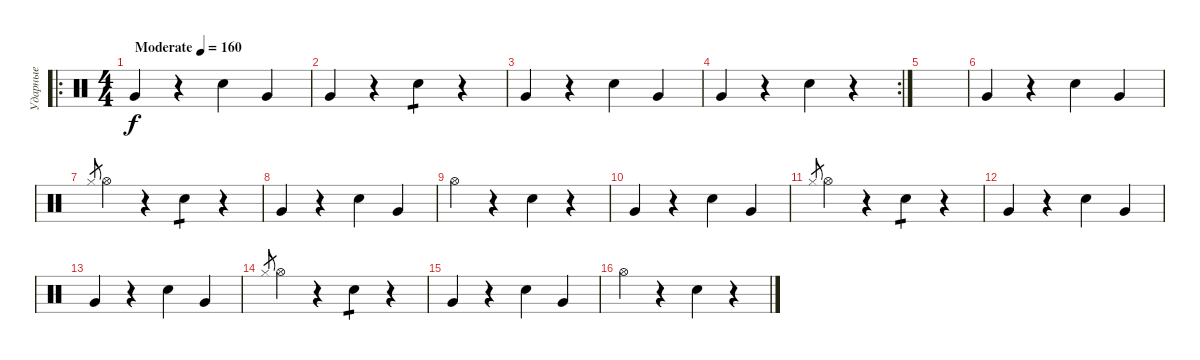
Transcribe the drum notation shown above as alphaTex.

\track ("Ударные" "Ударные") {instrument percussion}
\staff {score}
\articulation defaults
\ro
\ts (4 4)
\tempo (160 "Moderate")
\clef neutral
\ks c "Very Low Tom (hit)".4{dy f}
r.4 "Hand Clap (hit)".4 "Very Low Tom (hit)".4 |
"Very Low Tom (hit)".4 r.4 "Hand Clap (hit)".4{tp 1} r.4 |
"Very Low Tom (hit)".4 r.4 "Hand Clap (hit)".4 "Very Low Tom (hit)".4 |
\rc 2 "Very Low Tom (hit)".4
r.4 "Hand Clap (hit)".4 r.4 |
|
"Very Low Tom (hit)".4 r.4 "Hand Clap (hit)".4 "Very Low Tom (hit)".4 |
"Hi-Hat (closed)".8{gr} "Hi-Hat (open)".4 r.4 "Hand Clap (hit)".4{tp 1} r.4 |
"Very Low Tom (hit)".4 r.4 "Hand Clap (hit)".4 "Very Low Tom (hit)".4 |
"Hi-Hat (open)".4 r.4 "Hand Clap (hit)".4 r.4 |
"Very Low Tom (hit)".4 r.4 "Hand Clap (hit)".4 "Very Low Tom (hit)".4 |
"Hi-Hat (closed)".8{gr} "Hi-Hat (open)".4 r.4 "Hand Clap (hit)".4{tp 1} r.4 |
"Very Low Tom (hit)".4 r.4 "Hand Clap (hit)".4 "Very Low Tom (hit)".4 |
"Very Low Tom (hit)".4 r.4 "Hand Clap (hit)".4 "Very Low Tom (hit)".4 |
"Hi-Hat (closed)".8{gr} "Hi-Hat (open)".4 r.4 "Hand Clap (hit)".4{tp 1} r.4 |
"Very Low Tom (hit)".4 r.4 "Hand Clap (hit)".4 "Very Low Tom (hit)".4 |
"Hi-Hat (open)".4 r.4 "Hand Clap (hit)".4 r.4
